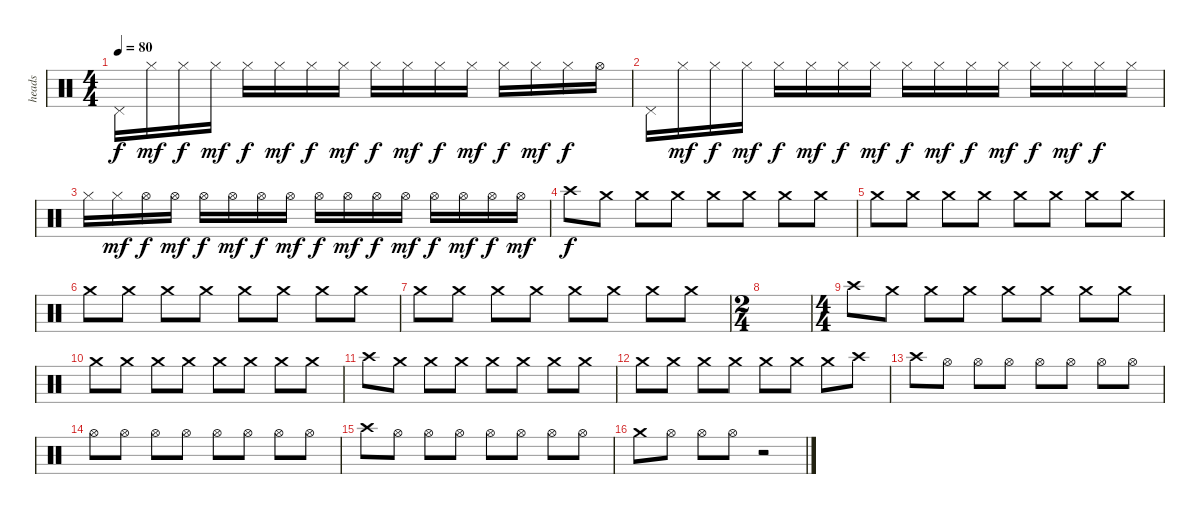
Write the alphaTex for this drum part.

\track ("heads" "heads") {instrument percussion}
\staff {score}
\articulation defaults
\ts (4 4)
\tempo 80
\clef neutral
\ks c "Pedal Hi-Hat (hit)".16{dy f} "Hi-Hat (closed)".16{dy mf} "Hi-Hat (closed)".16{dy f} "Hi-Hat (closed)".16{dy mf} "Hi-Hat (closed)".16{dy f} "Hi-Hat (closed)".16{dy mf} "Hi-Hat (closed)".16{dy f} "Hi-Hat (closed)".16{dy mf} "Hi-Hat (closed)".16{dy f} "Hi-Hat (closed)".16{dy mf} "Hi-Hat (closed)".16{dy f} "Hi-Hat (closed)".16{dy mf} "Hi-Hat (closed)".16{dy f} "Hi-Hat (closed)".16{dy mf} "Hi-Hat (closed)".16{dy f} "Hi-Hat (open)".16
|
"Pedal Hi-Hat (hit)".16 "Hi-Hat (closed)".16{dy mf} "Hi-Hat (closed)".16{dy f} "Hi-Hat (closed)".16{dy mf} "Hi-Hat (closed)".16{dy f} "Hi-Hat (closed)".16{dy mf} "Hi-Hat (closed)".16{dy f} "Hi-Hat (closed)".16{dy mf} "Hi-Hat (closed)".16{dy f} "Hi-Hat (closed)".16{dy mf} "Hi-Hat (closed)".16{dy f} "Hi-Hat (closed)".16{dy mf} "Hi-Hat (closed)".16{dy f} "Hi-Hat (closed)".16{dy mf} "Hi-Hat (closed)".16{dy f} "Hi-Hat (closed)".16 |
"Hi-Hat (closed)".16 "Hi-Hat (closed)".16{dy mf} "Hi-Hat (open)".16{dy f} "Hi-Hat (open)".16{dy mf} "Hi-Hat (open)".16{dy f} "Hi-Hat (open)".16{dy mf} "Hi-Hat (open)".16{dy f} "Hi-Hat (open)".16{dy mf} "Hi-Hat (open)".16{dy f} "Hi-Hat (open)".16{dy mf} "Hi-Hat (open)".16{dy f} "Hi-Hat (open)".16{dy mf} "Hi-Hat (open)".16{dy f} "Hi-Hat (open)".16{dy mf} "Hi-Hat (open)".16{dy f} "Hi-Hat (open)".16{dy mf} |
"Crash high (hit)".8{dy f} "Crash medium (hit)".8 "Crash medium (hit)".8 "Crash medium (hit)".8 "Crash medium (hit)".8 "Crash medium (hit)".8 "Crash medium (hit)".8 "Crash medium (hit)".8 |
"Crash medium (hit)".8 "Crash medium (hit)".8 "Crash medium (hit)".8 "Crash medium (hit)".8 "Crash medium (hit)".8 "Crash medium (hit)".8 "Crash medium (hit)".8 "Crash medium (hit)".8 |
"Crash medium (hit)".8 "Crash medium (hit)".8 "Crash medium (hit)".8 "Crash medium (hit)".8 "Crash medium (hit)".8 "Crash medium (hit)".8 "Crash medium (hit)".8 "Crash medium (hit)".8 |
"Crash medium (hit)".8 "Crash medium (hit)".8 "Crash medium (hit)".8 "Crash medium (hit)".8 "Crash medium (hit)".8 "Crash medium (hit)".8 "Crash medium (hit)".8 "Crash medium (hit)".8 |
\ts (2 4)
|
\ts (4 4)
"Crash high (hit)".8 "Crash medium (hit)".8 "Crash medium (hit)".8 "Crash medium (hit)".8 "Crash medium (hit)".8 "Crash medium (hit)".8 "Crash medium (hit)".8 "Crash medium (hit)".8 |
"Crash medium (hit)".8 "Crash medium (hit)".8 "Crash medium (hit)".8 "Crash medium (hit)".8 "Crash medium (hit)".8 "Crash medium (hit)".8 "Crash medium (hit)".8 "Crash medium (hit)".8 |
"Crash high (hit)".8 "Crash medium (hit)".8 "Crash medium (hit)".8 "Crash medium (hit)".8 "Crash medium (hit)".8 "Crash medium (hit)".8 "Crash medium (hit)".8 "Crash medium (hit)".8 |
"Crash medium (hit)".8 "Crash medium (hit)".8 "Crash medium (hit)".8 "Crash medium (hit)".8 "Crash medium (hit)".8 "Crash medium (hit)".8 "Crash medium (hit)".8 "Crash high (hit)".8 |
"Crash high (hit)".8 "Hi-Hat (open)".8 "Hi-Hat (open)".8 "Hi-Hat (open)".8 "Hi-Hat (open)".8 "Hi-Hat (open)".8 "Hi-Hat (open)".8 "Hi-Hat (open)".8 |
"Hi-Hat (open)".8 "Hi-Hat (open)".8 "Hi-Hat (open)".8 "Hi-Hat (open)".8 "Hi-Hat (open)".8 "Hi-Hat (open)".8 "Hi-Hat (open)".8 "Hi-Hat (open)".8 |
"Crash high (hit)".8 "Hi-Hat (open)".8 "Hi-Hat (open)".8 "Hi-Hat (open)".8 "Hi-Hat (open)".8 "Hi-Hat (open)".8 "Hi-Hat (open)".8 "Hi-Hat (open)".8 |
"Crash medium (hit)".8 "Hi-Hat (open)".8 "Hi-Hat (open)".8 "Hi-Hat (open)".8 r.2
